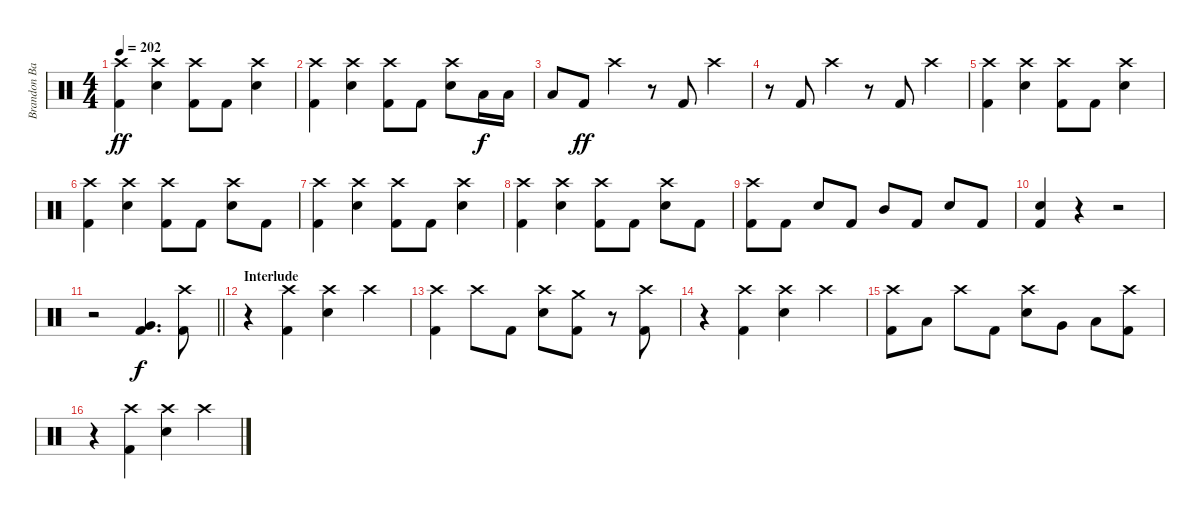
\track ("Brandon Barnes - Drums" "Brandon Ba") {instrument percussion}
\staff {score}
\articulation defaults
\ts (4 4)
\tempo 202
\clef neutral
\ks c
("Kick (hit) 2" "Crash high (hit)").4{dy ff} ("Snare (hit) 2" "Crash high (hit)").4 ("Kick (hit) 2" "Crash high (hit)").8 "Kick (hit) 2".8 ("Snare (hit) 2" "Crash high (hit)").4 |
("Kick (hit) 2" "Crash high (hit)").4 ("Snare (hit) 2" "Crash high (hit)").4 ("Kick (hit) 2" "Crash high (hit)").8 "Kick (hit) 2".8 ("Snare (hit) 2" "Crash high (hit)").8 "Low Tom (hit)".16{dy f} "Low Tom (hit)".16 |
"Low Tom (hit)".8 "Kick (hit) 2".8{dy ff} "Crash high (hit)".4 r.8 "Kick (hit) 2".8 "Crash high (hit)".4 |
r.8 "Kick (hit) 2".8 "Crash high (hit)".4 r.8 "Kick (hit) 2".8 "Crash high (hit)".4 |
("Kick (hit) 2" "Crash high (hit)").4 ("Snare (hit) 2" "Crash high (hit)").4 ("Kick (hit) 2" "Crash high (hit)").8 "Kick (hit) 2".8 ("Snare (hit) 2" "Crash high (hit)").4 |
("Kick (hit) 2" "Crash high (hit)").4 ("Snare (hit) 2" "Crash high (hit)").4 ("Kick (hit) 2" "Crash high (hit)").8 "Kick (hit) 2".8 ("Snare (hit) 2" "Crash high (hit)").8 "Kick (hit) 2".8 |
("Kick (hit) 2" "Crash high (hit)").4 ("Snare (hit) 2" "Crash high (hit)").4 ("Kick (hit) 2" "Crash high (hit)").8 "Kick (hit) 2".8 ("Snare (hit) 2" "Crash high (hit)").4 |
("Kick (hit) 2" "Crash high (hit)").4 ("Snare (hit) 2" "Crash high (hit)").4 ("Kick (hit) 2" "Crash high (hit)").8 "Kick (hit) 2".8 ("Snare (hit) 2" "Crash high (hit)").8 "Kick (hit) 2".8 |
("Kick (hit) 2" "Crash high (hit)").8 "Kick (hit) 2".8 "Snare (hit) 2".8 "Kick (hit) 2".8 "Mid Tom (hit)".8 "Kick (hit) 2".8 "Snare (hit) 2".8 "Kick (hit) 2".8 |
("Kick (hit) 2" "Snare (hit) 2").4 r.4 r.2 |
\barLineRight lightlight
r.2 ("Very Low Tom (hit)" "Kick (hit) 2").4{d dy f} ("Kick (hit) 2" "Crash high (hit)").8 |
\section ("" "Interlude")
r.4 ("Kick (hit) 2" "Crash high (hit)").4 ("Snare (hit) 2" "Crash high (hit)").4 "Crash high (hit)".4 |
("Crash high (hit)" "Kick (hit) 2").4 "Crash high (hit)".8 "Kick (hit) 2".8 ("Snare (hit) 2" "Crash high (hit)").8 ("Kick (hit) 2" "Crash medium (hit)").8 r.8 ("Crash high (hit)" "Kick (hit) 2").8 |
r.4 ("Kick (hit) 2" "Crash high (hit)").4 ("Snare (hit) 2" "Crash high (hit)").4 "Crash high (hit)".4 |
("Kick (hit) 2" "Crash high (hit)").8 "Low Tom (hit)".8 "Crash high (hit)".8 "Kick (hit) 2".8 ("Snare (hit) 2" "Crash high (hit)").8 "Very Low Tom (hit)".8 "Low Floor Tom (hit)".8 ("Crash high (hit)" "Kick (hit) 2").8 |
r.4 ("Kick (hit) 2" "Crash high (hit)").4 ("Snare (hit) 2" "Crash high (hit)").4 "Crash high (hit)".4
